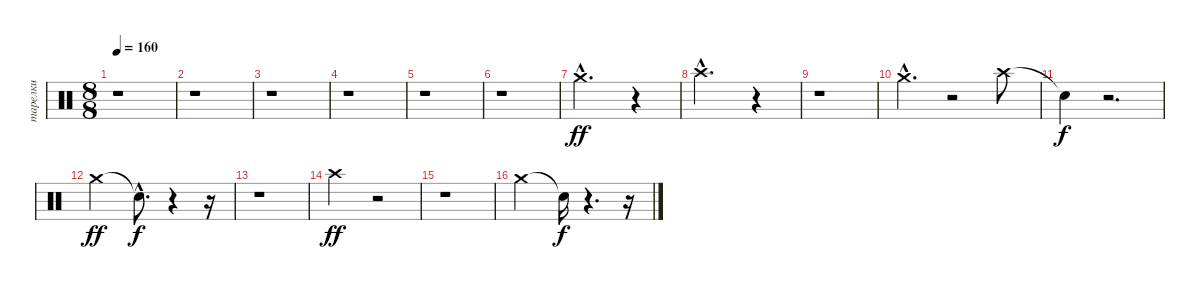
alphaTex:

\track ("тарелки" "тарелки") {instrument percussion}
\staff {score}
\articulation defaults
\ts (8 8)
\tempo 160
\clef neutral
\ks c
r.1{dy f} |
r.1 |
r.1 |
r.1 |
r.1 |
r.1 |
"Crash medium (hit)"{hac}.2{d dy ff} r.4 |
"Crash high (hit)"{hac}.2{d} r.4 |
r.1 |
"Crash medium (hit)"{hac}.4{d} r.2 "Crash high (hit)".8 |
"Snare (hit)"{t}.4{dy f} r.2{d} |
"Crash medium (hit)".2{dy ff} "Snare (hit)"{hac t}.8{d dy f} r.4 r.16 |
r.1 |
"Crash high (hit)".2{dy ff} r.2 |
r.1 |
"Crash medium (hit)".2 "Snare (hit)"{t}.16{dy f} r.4{d} r.16
